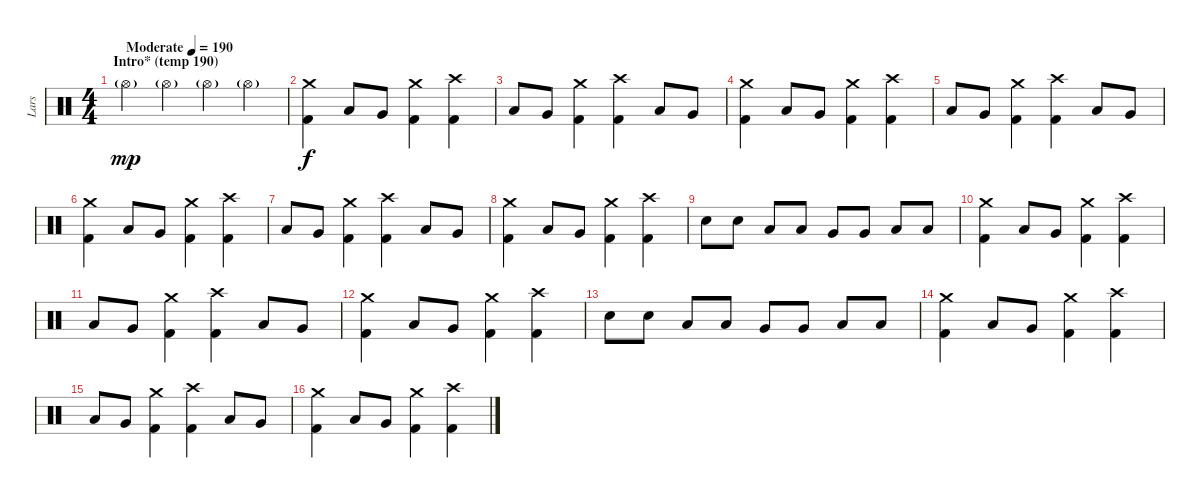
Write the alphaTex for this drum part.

\track ("Lars" "Lars") {instrument percussion}
\staff {score}
\articulation defaults
\ts (4 4)
\section ("" "Intro* (temp 190)")
\tempo (190 "Moderate")
\clef neutral
\ks c "Hi-Hat (open)"{g}.4{dy mp} "Hi-Hat (open)"{g}.4 "Hi-Hat (open)"{g}.4 "Hi-Hat (open)"{g}.4
|
("Crash medium (hit)" "Kick (hit) 2").4{dy f} "Low Tom (hit)".8 "Very Low Tom (hit)".8 ("Crash medium (hit)" "Kick (hit) 2").4 ("Crash high (hit)" "Kick (hit) 2").4 |
"Low Tom (hit)".8 "Very Low Tom (hit)".8 ("Crash medium (hit)" "Kick (hit) 2").4 ("Crash high (hit)" "Kick (hit) 2").4 "Low Tom (hit)".8 "Very Low Tom (hit)".8 |
("Crash medium (hit)" "Kick (hit) 2").4 "Low Tom (hit)".8 "Very Low Tom (hit)".8 ("Crash medium (hit)" "Kick (hit) 2").4 ("Crash high (hit)" "Kick (hit) 2").4 |
"Low Tom (hit)".8 "Very Low Tom (hit)".8 ("Crash medium (hit)" "Kick (hit) 2").4 ("Crash high (hit)" "Kick (hit) 2").4 "Low Tom (hit)".8 "Very Low Tom (hit)".8 |
("Crash medium (hit)" "Kick (hit) 2").4 "Low Tom (hit)".8 "Very Low Tom (hit)".8 ("Crash medium (hit)" "Kick (hit) 2").4 ("Crash high (hit)" "Kick (hit) 2").4 |
"Low Tom (hit)".8 "Very Low Tom (hit)".8 ("Crash medium (hit)" "Kick (hit) 2").4 ("Crash high (hit)" "Kick (hit) 2").4 "Low Tom (hit)".8 "Very Low Tom (hit)".8 |
("Crash medium (hit)" "Kick (hit) 2").4 "Low Tom (hit)".8 "Very Low Tom (hit)".8 ("Crash medium (hit)" "Kick (hit) 2").4 ("Crash high (hit)" "Kick (hit) 2").4 |
"Electric Snare (hit)".8 "Electric Snare (hit)".8 "Low Tom (hit)".8 "Low Tom (hit)".8 "Very Low Tom (hit)".8 "Very Low Tom (hit)".8 "Low Floor Tom (hit)".8 "Low Floor Tom (hit)".8 |
("Crash medium (hit)" "Kick (hit) 2").4 "Low Tom (hit)".8 "Very Low Tom (hit)".8 ("Crash medium (hit)" "Kick (hit) 2").4 ("Crash high (hit)" "Kick (hit) 2").4 |
"Low Tom (hit)".8 "Very Low Tom (hit)".8 ("Crash medium (hit)" "Kick (hit) 2").4 ("Crash high (hit)" "Kick (hit) 2").4 "Low Tom (hit)".8 "Very Low Tom (hit)".8 |
("Crash medium (hit)" "Kick (hit) 2").4 "Low Tom (hit)".8 "Very Low Tom (hit)".8 ("Crash medium (hit)" "Kick (hit) 2").4 ("Crash high (hit)" "Kick (hit) 2").4 |
"Electric Snare (hit)".8 "Electric Snare (hit)".8 "Low Tom (hit)".8 "Low Tom (hit)".8 "Very Low Tom (hit)".8 "Very Low Tom (hit)".8 "Low Floor Tom (hit)".8 "Low Floor Tom (hit)".8 |
("Crash medium (hit)" "Kick (hit) 2").4 "Low Tom (hit)".8 "Very Low Tom (hit)".8 ("Crash medium (hit)" "Kick (hit) 2").4 ("Crash high (hit)" "Kick (hit) 2").4 |
"Low Tom (hit)".8 "Very Low Tom (hit)".8 ("Crash medium (hit)" "Kick (hit) 2").4 ("Crash high (hit)" "Kick (hit) 2").4 "Low Tom (hit)".8 "Very Low Tom (hit)".8 |
("Crash medium (hit)" "Kick (hit) 2").4 "Low Tom (hit)".8 "Very Low Tom (hit)".8 ("Crash medium (hit)" "Kick (hit) 2").4 ("Crash high (hit)" "Kick (hit) 2").4
